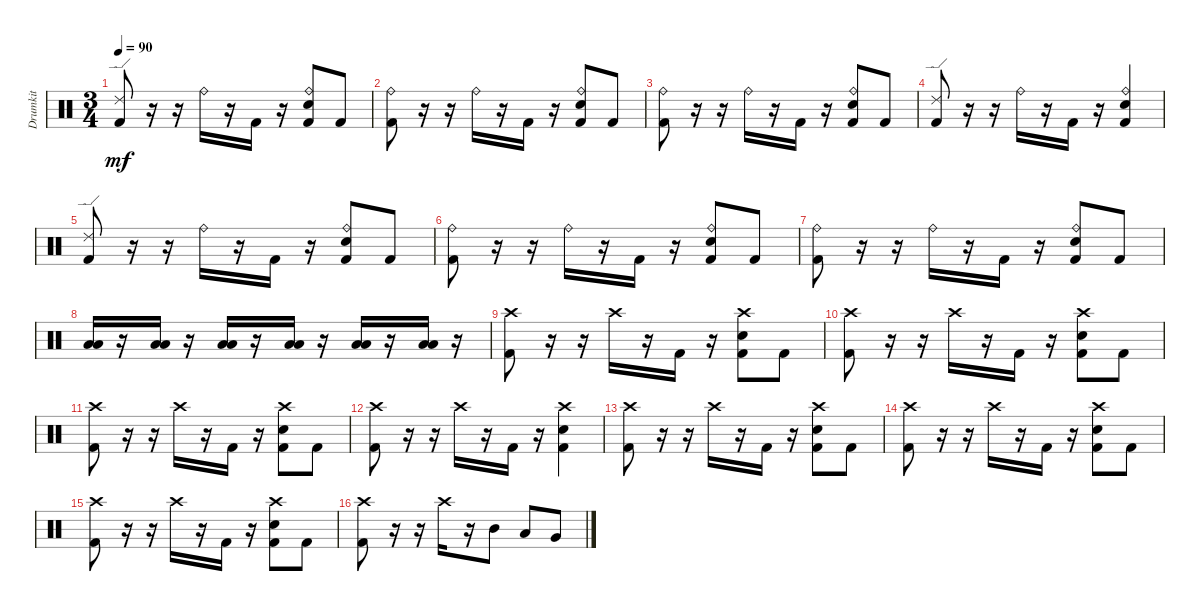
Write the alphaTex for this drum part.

\track ("Drumkit" "Drumkit") {instrument percussion}
\staff {score}
\articulation defaults
\ts (3 4)
\tempo 90
\clef neutral
\ks c
("Ride (edge) 2" "Kick (hit) 2").8{dy mf} r.16 r.16 "Ride (bell)".16 r.16 "Kick (hit) 2".16 r.16 ("Ride (bell)" "Snare (hit) 2" "Kick (hit) 2").8 "Kick (hit) 2".8 |
("Ride (bell)" "Kick (hit) 2").8 r.16 r.16 "Ride (bell)".16 r.16 "Kick (hit) 2".16 r.16 ("Ride (bell)" "Snare (hit) 2" "Kick (hit) 2").8 "Kick (hit) 2".8 |
("Ride (bell)" "Kick (hit) 2").8 r.16 r.16 "Ride (bell)".16 r.16 "Kick (hit) 2".16 r.16 ("Ride (bell)" "Snare (hit) 2" "Kick (hit) 2").8 "Kick (hit) 2".8 |
("Ride (edge) 2" "Kick (hit) 2").8 r.16 r.16 "Ride (bell)".16 r.16 "Kick (hit) 2".16 r.16 ("Ride (bell)" "Snare (hit) 2" "Kick (hit) 2").4 |
("Ride (edge) 2" "Kick (hit) 2").8 r.16 r.16 "Ride (bell)".16 r.16 "Kick (hit) 2".16 r.16 ("Ride (bell)" "Snare (hit) 2" "Kick (hit) 2").8 "Kick (hit) 2".8 |
("Ride (bell)" "Kick (hit) 2").8 r.16 r.16 "Ride (bell)".16 r.16 "Kick (hit) 2".16 r.16 ("Ride (bell)" "Snare (hit) 2" "Kick (hit) 2").8 "Kick (hit) 2".8 |
("Ride (bell)" "Kick (hit) 2").8 r.16 r.16 "Ride (bell)".16 r.16 "Kick (hit) 2".16 r.16 ("Ride (bell)" "Snare (hit) 2" "Kick (hit) 2").8 "Kick (hit) 2".8 |
("Low Floor Tom (hit)" "Low Tom (hit)").16 r.16 ("Low Tom (hit)" "Low Floor Tom (hit)").16 r.16 ("Low Floor Tom (hit)" "Low Tom (hit)").16 r.16 ("Low Floor Tom (hit)" "Low Tom (hit)").16 r.16 ("Low Floor Tom (hit)" "Low Tom (hit)").16 r.16 ("Low Floor Tom (hit)" "Low Tom (hit)").16 r.16 |
("Crash high (hit)" "Kick (hit) 2").8 r.16 r.16 "Crash high (hit)".16 r.16 "Kick (hit) 2".16 r.16 ("Crash high (hit)" "Snare (hit) 2" "Kick (hit) 2").8 "Kick (hit) 2".8 |
("Crash high (hit)" "Kick (hit) 2").8 r.16 r.16 "Crash high (hit)".16 r.16 "Kick (hit) 2".16 r.16 ("Crash high (hit)" "Snare (hit) 2" "Kick (hit) 2").8 "Kick (hit) 2".8 |
("Crash high (hit)" "Kick (hit) 2").8 r.16 r.16 "Crash high (hit)".16 r.16 "Kick (hit) 2".16 r.16 ("Crash high (hit)" "Snare (hit) 2" "Kick (hit) 2").8 "Kick (hit) 2".8 |
("Crash high (hit)" "Kick (hit) 2").8 r.16 r.16 "Crash high (hit)".16 r.16 "Kick (hit) 2".16 r.16 ("Crash high (hit)" "Snare (hit) 2" "Kick (hit) 2").4 |
("Crash high (hit)" "Kick (hit) 2").8 r.16 r.16 "Crash high (hit)".16 r.16 "Kick (hit) 2".16 r.16 ("Crash high (hit)" "Snare (hit) 2" "Kick (hit) 2").8 "Kick (hit) 2".8 |
("Crash high (hit)" "Kick (hit) 2").8 r.16 r.16 "Crash high (hit)".16 r.16 "Kick (hit) 2".16 r.16 ("Crash high (hit)" "Snare (hit) 2" "Kick (hit) 2").8 "Kick (hit) 2".8 |
("Crash high (hit)" "Kick (hit) 2").8 r.16 r.16 "Crash high (hit)".16 r.16 "Kick (hit) 2".16 r.16 ("Crash high (hit)" "Snare (hit) 2" "Kick (hit) 2").8 "Kick (hit) 2".8 |
("Crash high (hit)" "Kick (hit) 2").8 r.16 r.16 "Crash high (hit)".16 r.16 "Mid Tom (hit)".8 "Low Tom (hit)".8 "Very Low Tom (hit)".8
